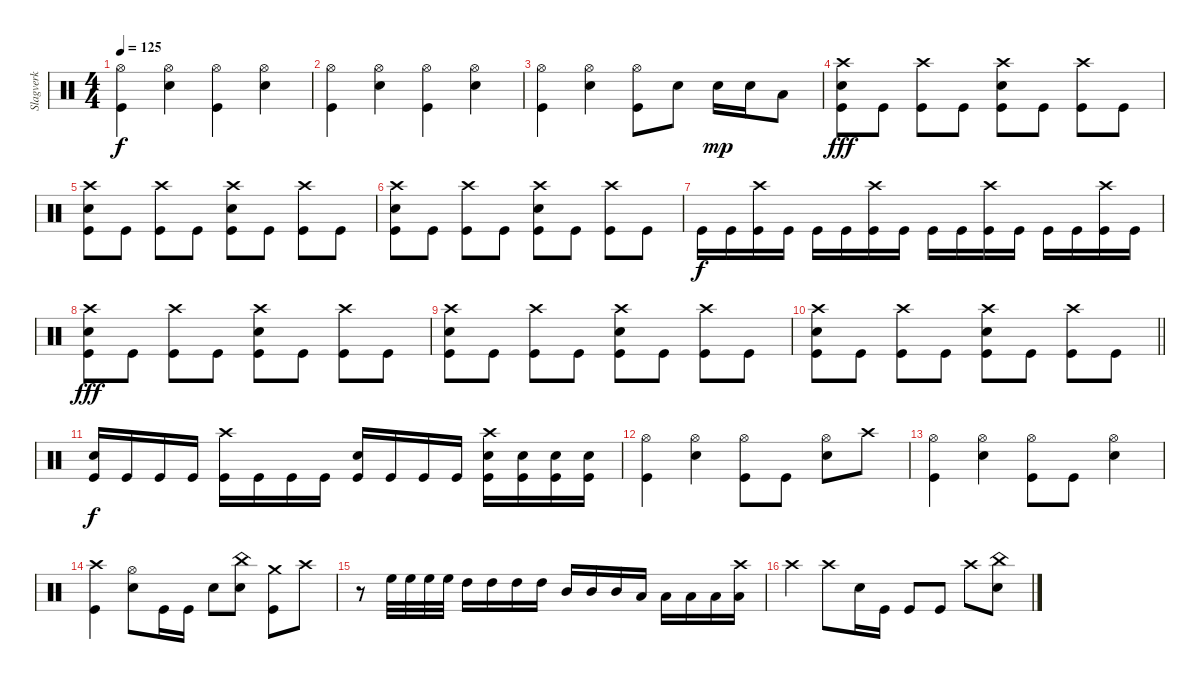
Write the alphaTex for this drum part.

\track ("Slagverk" "Slagverk") {instrument percussion}
\staff {score}
\articulation defaults
\ts (4 4)
\tempo 125
\clef neutral
\ks c
("Hi-Hat (open)" "Kick (hit)").4{dy f} ("Hi-Hat (open)" "Snare (hit) 2").4 ("Hi-Hat (open)" "Kick (hit)").4 ("Hi-Hat (open)" "Snare (hit) 2").4 |
("Hi-Hat (open)" "Kick (hit)").4 ("Hi-Hat (open)" "Snare (hit) 2").4 ("Hi-Hat (open)" "Kick (hit)").4 ("Hi-Hat (open)" "Snare (hit) 2").4 |
("Hi-Hat (open)" "Kick (hit)").4 ("Hi-Hat (open)" "Snare (hit) 2").4 ("Hi-Hat (open)" "Kick (hit)").8 "Snare (hit) 2".8 "Snare (hit) 2".16{dy mp} "Snare (hit) 2".16 "Low Floor Tom (hit)".8 |
("Crash high (hit)" "Snare (hit) 2" "Kick (hit)").8{dy fff} "Kick (hit)".8 ("Crash high (hit)" "Kick (hit)").8 "Kick (hit)".8 ("Crash high (hit)" "Snare (hit) 2" "Kick (hit)").8 "Kick (hit)".8 ("Crash high (hit)" "Kick (hit)").8 "Kick (hit)".8 |
("Crash high (hit)" "Snare (hit) 2" "Kick (hit)").8 "Kick (hit)".8 ("Crash high (hit)" "Kick (hit)").8 "Kick (hit)".8 ("Crash high (hit)" "Snare (hit) 2" "Kick (hit)").8 "Kick (hit)".8 ("Crash high (hit)" "Kick (hit)").8 "Kick (hit)".8 |
("Crash high (hit)" "Snare (hit) 2" "Kick (hit)").8 "Kick (hit)".8 ("Crash high (hit)" "Kick (hit)").8 "Kick (hit)".8 ("Crash high (hit)" "Snare (hit) 2" "Kick (hit)").8 "Kick (hit)".8 ("Crash high (hit)" "Kick (hit)").8 "Kick (hit)".8 |
"Kick (hit)".16{dy f} "Kick (hit)".16 ("Crash high (hit)" "Kick (hit)").16 "Kick (hit)".16 "Kick (hit)".16 "Kick (hit)".16 ("Crash high (hit)" "Kick (hit)").16 "Kick (hit)".16 "Kick (hit)".16 "Kick (hit)".16 ("Crash high (hit)" "Kick (hit)").16 "Kick (hit)".16 "Kick (hit)".16 "Kick (hit)".16 ("Crash high (hit)" "Kick (hit)").16 "Kick (hit)".16 |
("Crash high (hit)" "Snare (hit) 2" "Kick (hit)").8{dy fff} "Kick (hit)".8 ("Crash high (hit)" "Kick (hit)").8 "Kick (hit)".8 ("Crash high (hit)" "Snare (hit) 2" "Kick (hit)").8 "Kick (hit)".8 ("Crash high (hit)" "Kick (hit)").8 "Kick (hit)".8 |
("Crash high (hit)" "Snare (hit) 2" "Kick (hit)").8 "Kick (hit)".8 ("Crash high (hit)" "Kick (hit)").8 "Kick (hit)".8 ("Crash high (hit)" "Snare (hit) 2" "Kick (hit)").8 "Kick (hit)".8 ("Crash high (hit)" "Kick (hit)").8 "Kick (hit)".8 |
\barLineRight lightlight
("Crash high (hit)" "Snare (hit) 2" "Kick (hit)").8 "Kick (hit)".8 ("Crash high (hit)" "Kick (hit)").8 "Kick (hit)".8 ("Crash high (hit)" "Snare (hit) 2" "Kick (hit)").8 "Kick (hit)".8 ("Crash high (hit)" "Kick (hit)").8 "Kick (hit)".8 |
("Snare (hit) 2" "Kick (hit)").16{dy f} "Kick (hit)".16 "Kick (hit)".16 "Kick (hit)".16 ("Crash high (hit)" "Kick (hit)").16 "Kick (hit)".16 "Kick (hit)".16 "Kick (hit)".16 ("Snare (hit) 2" "Kick (hit)").16 "Kick (hit)".16 "Kick (hit)".16 "Kick (hit)".16 ("Crash high (hit)" "Snare (hit) 2" "Kick (hit)").16 ("Snare (hit) 2" "Kick (hit)").16 ("Snare (hit) 2" "Kick (hit)").16 ("Snare (hit) 2" "Kick (hit)").16 |
("Hi-Hat (open)" "Kick (hit)").4 ("Hi-Hat (open)" "Snare (hit) 2").4 ("Hi-Hat (open)" "Kick (hit)").8 "Kick (hit)".8 ("Hi-Hat (open)" "Snare (hit) 2").8 "Crash high (hit)".8 |
("Hi-Hat (open)" "Kick (hit)").4 ("Hi-Hat (open)" "Snare (hit) 2").4 ("Hi-Hat (open)" "Kick (hit)").8 "Kick (hit)".8 ("Hi-Hat (open)" "Snare (hit) 2").4 |
("Crash high (hit)" "Kick (hit)").4 ("Hi-Hat (open)" "Snare (hit) 2").8 "Kick (hit)".16 "Kick (hit)".16 "Snare (hit) 2".8 ("China (hit)" "Snare (hit) 2").8 ("Crash medium (hit)" "Kick (hit)").8 "Crash high (hit)".8 |
r.8 "High Floor Tom (hit)".32 "High Floor Tom (hit)".32 "High Floor Tom (hit)".32 "High Floor Tom (hit)".32 "High Tom (hit)".16 "High Tom (hit)".16 "High Tom (hit)".16 "High Tom (hit)".16 "Mid Tom (hit)".16 "Mid Tom (hit)".16 "Mid Tom (hit)".16 "Low Tom (hit)".16 "Low Tom (hit)".16 "Low Tom (hit)".16 "Low Floor Tom (hit)".16 ("Crash high (hit)" "Low Floor Tom (hit)").16 |
"Crash high (hit)".4 "Crash high (hit)".8 "Snare (hit) 2".16 "Kick (hit)".16 "Kick (hit)".8 "Kick (hit)".8 "Crash high (hit)".8 ("China (hit)" "Snare (hit) 2").8
